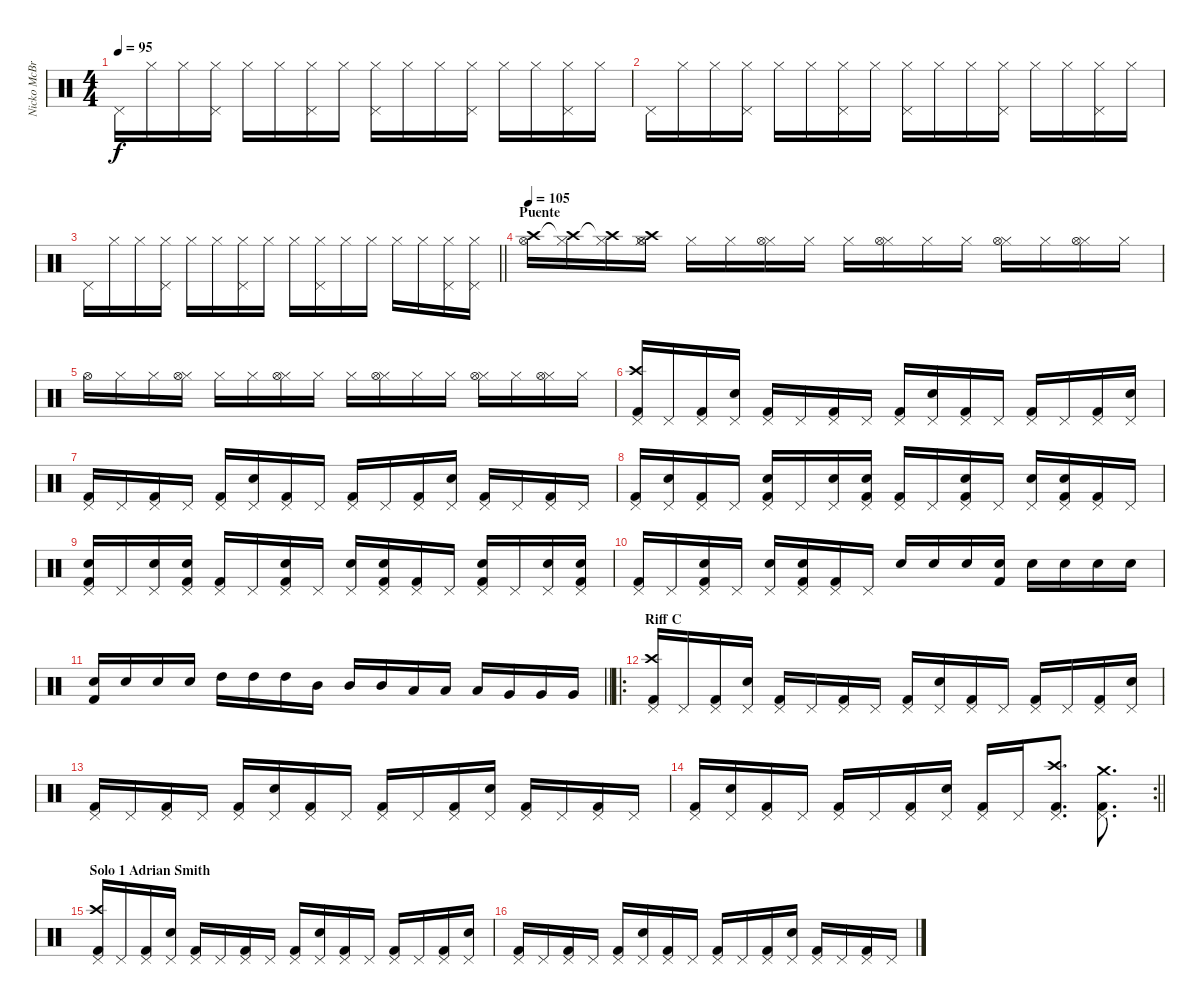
\track ("Nicko McBrain" "Nicko McBr") {instrument percussion}
\staff {score}
\articulation defaults
\ts (4 4)
\tempo 95
\clef neutral
\ks c "Pedal Hi-Hat (hit)".16{dy f} "Hi-Hat (closed)".16 "Hi-Hat (closed)".16
("Hi-Hat (closed)" "Pedal Hi-Hat (hit)").16 "Hi-Hat (closed)".16 "Hi-Hat (closed)".16 ("Hi-Hat (closed)" "Pedal Hi-Hat (hit)").16 "Hi-Hat (closed)".16 ("Hi-Hat (closed)" "Pedal Hi-Hat (hit)").16 "Hi-Hat (closed)".16 "Hi-Hat (closed)".16 ("Hi-Hat (closed)" "Pedal Hi-Hat (hit)").16 "Hi-Hat (closed)".16 "Hi-Hat (closed)".16 ("Hi-Hat (closed)" "Pedal Hi-Hat (hit)").16 "Hi-Hat (closed)".16 |
"Pedal Hi-Hat (hit)".16 "Hi-Hat (closed)".16 "Hi-Hat (closed)".16 ("Hi-Hat (closed)" "Pedal Hi-Hat (hit)").16 "Hi-Hat (closed)".16 "Hi-Hat (closed)".16 ("Hi-Hat (closed)" "Pedal Hi-Hat (hit)").16 "Hi-Hat (closed)".16 ("Hi-Hat (closed)" "Pedal Hi-Hat (hit)").16 "Hi-Hat (closed)".16 "Hi-Hat (closed)".16 ("Hi-Hat (closed)" "Pedal Hi-Hat (hit)").16 "Hi-Hat (closed)".16 "Hi-Hat (closed)".16 ("Hi-Hat (closed)" "Pedal Hi-Hat (hit)").16 "Hi-Hat (closed)".16 |
\barLineRight lightlight "Pedal Hi-Hat (hit)".16 "Hi-Hat (closed)".16 "Hi-Hat (closed)".16
("Hi-Hat (closed)" "Pedal Hi-Hat (hit)").16 "Hi-Hat (closed)".16 "Hi-Hat (closed)".16 ("Hi-Hat (closed)" "Pedal Hi-Hat (hit)").16 "Hi-Hat (closed)".16 "Hi-Hat (closed)".16 ("Hi-Hat (closed)" "Pedal Hi-Hat (hit)").16 "Hi-Hat (closed)".16 "Hi-Hat (closed)".16 "Hi-Hat (closed)".16 "Hi-Hat (closed)".16 ("Hi-Hat (closed)" "Pedal Hi-Hat (hit)").16 ("Hi-Hat (closed)" "Pedal Hi-Hat (hit)").16 |
\section ("" "Puente")
\tempo 105
("Hi-Hat (open)" "Crash high (hit)").16 ("Hi-Hat (closed)" "Crash high (hit)"{t}).16 ("Hi-Hat (closed)" "Crash high (hit)"{t}).16 ("Hi-Hat (closed)" "Hi-Hat (open)" "Crash high (hit)").16 "Hi-Hat (closed)".16 "Hi-Hat (closed)".16 ("Hi-Hat (closed)" "Hi-Hat (open)").16 "Hi-Hat (closed)".16 "Hi-Hat (closed)".16 ("Hi-Hat (closed)" "Hi-Hat (open)").16 "Hi-Hat (closed)".16 "Hi-Hat (closed)".16 ("Hi-Hat (closed)" "Hi-Hat (open)").16 "Hi-Hat (closed)".16 ("Hi-Hat (closed)" "Hi-Hat (open)").16 "Hi-Hat (closed)".16 |
"Hi-Hat (open)".16 "Hi-Hat (closed)".16 "Hi-Hat (closed)".16 ("Hi-Hat (closed)" "Hi-Hat (open)").16 "Hi-Hat (closed)".16 "Hi-Hat (closed)".16 ("Hi-Hat (closed)" "Hi-Hat (open)").16 "Hi-Hat (closed)".16 "Hi-Hat (closed)".16 ("Hi-Hat (closed)" "Hi-Hat (open)").16 "Hi-Hat (closed)".16 "Hi-Hat (closed)".16 ("Hi-Hat (closed)" "Hi-Hat (open)").16 "Hi-Hat (closed)".16 ("Hi-Hat (closed)" "Hi-Hat (open)").16 "Hi-Hat (closed)".16 |
("Kick (hit) 2" "Pedal Hi-Hat (hit)" "Crash high (hit)").16 "Pedal Hi-Hat (hit)".16 ("Kick (hit) 2" "Pedal Hi-Hat (hit)").16 ("Snare (hit) 2" "Pedal Hi-Hat (hit)").16 ("Kick (hit) 2" "Pedal Hi-Hat (hit)").16 "Pedal Hi-Hat (hit)".16 ("Kick (hit) 2" "Pedal Hi-Hat (hit)").16 "Pedal Hi-Hat (hit)".16 ("Kick (hit) 2" "Pedal Hi-Hat (hit)").16 ("Snare (hit) 2" "Pedal Hi-Hat (hit)").16 ("Kick (hit) 2" "Pedal Hi-Hat (hit)").16 "Pedal Hi-Hat (hit)".16 ("Kick (hit) 2" "Pedal Hi-Hat (hit)").16 "Pedal Hi-Hat (hit)".16 ("Kick (hit) 2" "Pedal Hi-Hat (hit)").16 ("Snare (hit) 2" "Pedal Hi-Hat (hit)").16 |
("Kick (hit) 2" "Pedal Hi-Hat (hit)").16 "Pedal Hi-Hat (hit)".16 ("Kick (hit) 2" "Pedal Hi-Hat (hit)").16 "Pedal Hi-Hat (hit)".16 ("Kick (hit) 2" "Pedal Hi-Hat (hit)").16 ("Snare (hit) 2" "Pedal Hi-Hat (hit)").16 ("Kick (hit) 2" "Pedal Hi-Hat (hit)").16 "Pedal Hi-Hat (hit)".16 ("Kick (hit) 2" "Pedal Hi-Hat (hit)").16 "Pedal Hi-Hat (hit)".16 ("Kick (hit) 2" "Pedal Hi-Hat (hit)").16 ("Snare (hit) 2" "Pedal Hi-Hat (hit)").16 ("Kick (hit) 2" "Pedal Hi-Hat (hit)").16 "Pedal Hi-Hat (hit)".16 ("Kick (hit) 2" "Pedal Hi-Hat (hit)").16 "Pedal Hi-Hat (hit)".16 |
("Kick (hit) 2" "Pedal Hi-Hat (hit)").16 ("Snare (hit) 2" "Pedal Hi-Hat (hit)").16 ("Kick (hit) 2" "Pedal Hi-Hat (hit)").16 "Pedal Hi-Hat (hit)".16 ("Kick (hit) 2" "Pedal Hi-Hat (hit)" "Snare (hit) 2").16 "Pedal Hi-Hat (hit)".16 ("Pedal Hi-Hat (hit)" "Snare (hit) 2").16 ("Kick (hit) 2" "Pedal Hi-Hat (hit)" "Snare (hit) 2").16 ("Kick (hit) 2" "Pedal Hi-Hat (hit)").16 "Pedal Hi-Hat (hit)".16 ("Kick (hit) 2" "Pedal Hi-Hat (hit)" "Snare (hit) 2").16 "Pedal Hi-Hat (hit)".16 ("Pedal Hi-Hat (hit)" "Snare (hit) 2").16 ("Kick (hit) 2" "Pedal Hi-Hat (hit)" "Snare (hit) 2").16 ("Kick (hit) 2" "Pedal Hi-Hat (hit)").16 "Pedal Hi-Hat (hit)".16 |
("Kick (hit) 2" "Pedal Hi-Hat (hit)" "Snare (hit) 2").16 "Pedal Hi-Hat (hit)".16 ("Pedal Hi-Hat (hit)" "Snare (hit) 2").16 ("Kick (hit) 2" "Pedal Hi-Hat (hit)" "Snare (hit) 2").16 ("Kick (hit) 2" "Pedal Hi-Hat (hit)").16 "Pedal Hi-Hat (hit)".16 ("Kick (hit) 2" "Pedal Hi-Hat (hit)" "Snare (hit) 2").16 "Pedal Hi-Hat (hit)".16 ("Pedal Hi-Hat (hit)" "Snare (hit) 2").16 ("Kick (hit) 2" "Pedal Hi-Hat (hit)" "Snare (hit) 2").16 ("Kick (hit) 2" "Pedal Hi-Hat (hit)").16 "Pedal Hi-Hat (hit)".16 ("Kick (hit) 2" "Pedal Hi-Hat (hit)" "Snare (hit) 2").16 "Pedal Hi-Hat (hit)".16 ("Pedal Hi-Hat (hit)" "Snare (hit) 2").16 ("Kick (hit) 2" "Pedal Hi-Hat (hit)" "Snare (hit) 2").16 |
("Kick (hit) 2" "Pedal Hi-Hat (hit)").16 "Pedal Hi-Hat (hit)".16 ("Kick (hit) 2" "Pedal Hi-Hat (hit)" "Snare (hit) 2").16 "Pedal Hi-Hat (hit)".16 ("Pedal Hi-Hat (hit)" "Snare (hit) 2").16 ("Kick (hit) 2" "Pedal Hi-Hat (hit)" "Snare (hit) 2").16 ("Kick (hit) 2" "Pedal Hi-Hat (hit)").16 "Pedal Hi-Hat (hit)".16 "Snare (hit) 2".16{volume 12} "Snare (hit) 2".16 "Snare (hit) 2".16 ("Snare (hit) 2" "Kick (hit) 2").16 "Snare (hit) 2".16 "Snare (hit) 2".16 "Snare (hit) 2".16 "Snare (hit) 2".16 |
\barLineRight lightlight
("Snare (hit) 2" "Kick (hit) 2").16{volume 14} "Snare (hit) 2".16 "Snare (hit) 2".16 "Snare (hit) 2".16 "High Tom (hit)".16 "High Tom (hit)".16 "High Tom (hit)".16 "Mid Tom (hit)".16 "Mid Tom (hit)".16 "Mid Tom (hit)".16 "Low Tom (hit)".16 "Low Tom (hit)".16 "Low Tom (hit)".16 "Very Low Tom (hit)".16 "Very Low Tom (hit)".16 "Very Low Tom (hit)".16 |
\ro
\section ("" "Riff C")
("Kick (hit) 2" "Pedal Hi-Hat (hit)" "Crash high (hit)").16{volume 14} "Pedal Hi-Hat (hit)".16 ("Kick (hit) 2" "Pedal Hi-Hat (hit)").16 ("Snare (hit) 2" "Pedal Hi-Hat (hit)").16 ("Kick (hit) 2" "Pedal Hi-Hat (hit)").16 "Pedal Hi-Hat (hit)".16 ("Kick (hit) 2" "Pedal Hi-Hat (hit)").16 "Pedal Hi-Hat (hit)".16 ("Kick (hit) 2" "Pedal Hi-Hat (hit)").16 ("Snare (hit) 2" "Pedal Hi-Hat (hit)").16 ("Kick (hit) 2" "Pedal Hi-Hat (hit)").16 "Pedal Hi-Hat (hit)".16 ("Kick (hit) 2" "Pedal Hi-Hat (hit)").16 "Pedal Hi-Hat (hit)".16 ("Kick (hit) 2" "Pedal Hi-Hat (hit)").16 ("Snare (hit) 2" "Pedal Hi-Hat (hit)").16 |
("Kick (hit) 2" "Pedal Hi-Hat (hit)").16 "Pedal Hi-Hat (hit)".16 ("Kick (hit) 2" "Pedal Hi-Hat (hit)").16 "Pedal Hi-Hat (hit)".16 ("Kick (hit) 2" "Pedal Hi-Hat (hit)").16 ("Snare (hit) 2" "Pedal Hi-Hat (hit)").16 ("Kick (hit) 2" "Pedal Hi-Hat (hit)").16 "Pedal Hi-Hat (hit)".16 ("Kick (hit) 2" "Pedal Hi-Hat (hit)").16 "Pedal Hi-Hat (hit)".16 ("Kick (hit) 2" "Pedal Hi-Hat (hit)").16 ("Snare (hit) 2" "Pedal Hi-Hat (hit)").16 ("Kick (hit) 2" "Pedal Hi-Hat (hit)").16 "Pedal Hi-Hat (hit)".16 ("Kick (hit) 2" "Pedal Hi-Hat (hit)").16 "Pedal Hi-Hat (hit)".16 |
\rc 2
\barLineRight lightlight
("Kick (hit) 2" "Pedal Hi-Hat (hit)").16 ("Snare (hit) 2" "Pedal Hi-Hat (hit)").16 ("Kick (hit) 2" "Pedal Hi-Hat (hit)").16 "Pedal Hi-Hat (hit)".16 ("Kick (hit) 2" "Pedal Hi-Hat (hit)").16 "Pedal Hi-Hat (hit)".16 ("Kick (hit) 2" "Pedal Hi-Hat (hit)").16 ("Snare (hit) 2" "Pedal Hi-Hat (hit)").16 ("Kick (hit) 2" "Pedal Hi-Hat (hit)").16 "Pedal Hi-Hat (hit)".16 ("Kick (hit) 2" "Pedal Hi-Hat (hit)" "Crash high (hit)").8{d} ("Kick (hit) 2" "Pedal Hi-Hat (hit)" "Crash medium (hit)").8{d} |
\section ("" "Solo 1 Adrian Smith")
("Kick (hit) 2" "Pedal Hi-Hat (hit)" "Crash high (hit)").16 "Pedal Hi-Hat (hit)".16 ("Kick (hit) 2" "Pedal Hi-Hat (hit)").16 ("Snare (hit) 2" "Pedal Hi-Hat (hit)").16 ("Kick (hit) 2" "Pedal Hi-Hat (hit)").16 "Pedal Hi-Hat (hit)".16 ("Kick (hit) 2" "Pedal Hi-Hat (hit)").16 "Pedal Hi-Hat (hit)".16 ("Kick (hit) 2" "Pedal Hi-Hat (hit)").16 ("Snare (hit) 2" "Pedal Hi-Hat (hit)").16 ("Kick (hit) 2" "Pedal Hi-Hat (hit)").16 "Pedal Hi-Hat (hit)".16 ("Kick (hit) 2" "Pedal Hi-Hat (hit)").16 "Pedal Hi-Hat (hit)".16 ("Kick (hit) 2" "Pedal Hi-Hat (hit)").16 ("Snare (hit) 2" "Pedal Hi-Hat (hit)").16 |
("Kick (hit) 2" "Pedal Hi-Hat (hit)").16 "Pedal Hi-Hat (hit)".16 ("Kick (hit) 2" "Pedal Hi-Hat (hit)").16 "Pedal Hi-Hat (hit)".16 ("Kick (hit) 2" "Pedal Hi-Hat (hit)").16 ("Snare (hit) 2" "Pedal Hi-Hat (hit)").16 ("Kick (hit) 2" "Pedal Hi-Hat (hit)").16 "Pedal Hi-Hat (hit)".16 ("Kick (hit) 2" "Pedal Hi-Hat (hit)").16 "Pedal Hi-Hat (hit)".16 ("Kick (hit) 2" "Pedal Hi-Hat (hit)").16 ("Snare (hit) 2" "Pedal Hi-Hat (hit)").16 ("Kick (hit) 2" "Pedal Hi-Hat (hit)").16 "Pedal Hi-Hat (hit)".16 ("Kick (hit) 2" "Pedal Hi-Hat (hit)").16 "Pedal Hi-Hat (hit)".16
